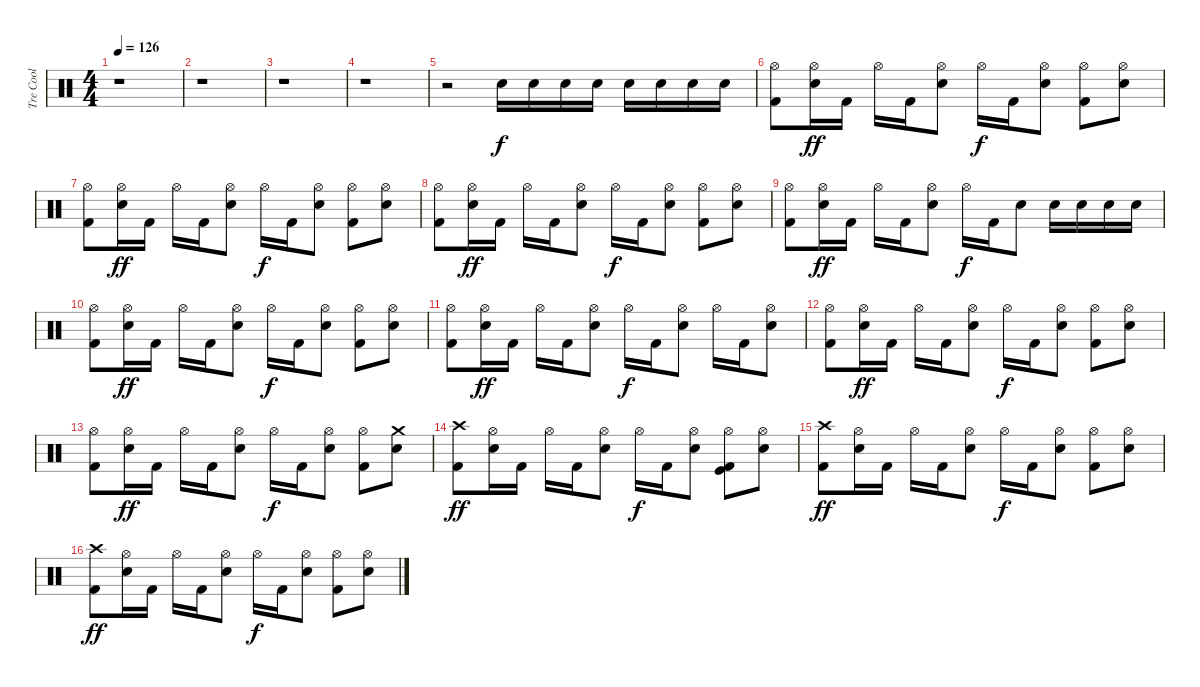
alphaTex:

\track ("Tre Cool" "Tre Cool") {instrument percussion}
\staff {score}
\articulation defaults
\ts (4 4)
\tempo 126
\clef neutral
\ks c
r.1{dy f} |
r.1 |
r.1 |
r.1 |
r.2 "Snare (hit) 2".16 "Snare (hit) 2".16 "Snare (hit) 2".16 "Snare (hit) 2".16 "Snare (hit) 2".16 "Snare (hit) 2".16 "Snare (hit) 2".16 "Snare (hit) 2".16 |
("Hi-Hat (open)" "Kick (hit) 2").8 ("Hi-Hat (open)" "Snare (hit) 2").16{dy ff} "Kick (hit) 2".16 "Hi-Hat (open)".16 "Kick (hit) 2".16 ("Hi-Hat (open)" "Snare (hit) 2").8 "Hi-Hat (open)".16{dy f} "Kick (hit) 2".16 ("Hi-Hat (open)" "Snare (hit) 2").8 ("Kick (hit) 2" "Hi-Hat (open)").8 ("Snare (hit) 2" "Hi-Hat (open)").8 |
("Hi-Hat (open)" "Kick (hit) 2").8 ("Hi-Hat (open)" "Snare (hit) 2").16{dy ff} "Kick (hit) 2".16 "Hi-Hat (open)".16 "Kick (hit) 2".16 ("Hi-Hat (open)" "Snare (hit) 2").8 "Hi-Hat (open)".16{dy f} "Kick (hit) 2".16 ("Hi-Hat (open)" "Snare (hit) 2").8 ("Kick (hit) 2" "Hi-Hat (open)").8 ("Hi-Hat (open)" "Snare (hit) 2").8 |
("Hi-Hat (open)" "Kick (hit) 2").8 ("Hi-Hat (open)" "Snare (hit) 2").16{dy ff} "Kick (hit) 2".16 "Hi-Hat (open)".16 "Kick (hit) 2".16 ("Hi-Hat (open)" "Snare (hit) 2").8 "Hi-Hat (open)".16{dy f} "Kick (hit) 2".16 ("Hi-Hat (open)" "Snare (hit) 2").8 ("Kick (hit) 2" "Hi-Hat (open)").8 ("Snare (hit) 2" "Hi-Hat (open)").8 |
("Hi-Hat (open)" "Kick (hit) 2").8 ("Hi-Hat (open)" "Snare (hit) 2").16{dy ff} "Kick (hit) 2".16 "Hi-Hat (open)".16 "Kick (hit) 2".16 ("Hi-Hat (open)" "Snare (hit) 2").8 "Hi-Hat (open)".16{dy f} "Kick (hit) 2".16 "Snare (hit) 2".8 "Snare (hit) 2".16 "Snare (hit) 2".16 "Snare (hit) 2".16 "Snare (hit) 2".16 |
("Hi-Hat (open)" "Kick (hit) 2").8 ("Hi-Hat (open)" "Snare (hit) 2").16{dy ff} "Kick (hit) 2".16 "Hi-Hat (open)".16 "Kick (hit) 2".16 ("Hi-Hat (open)" "Snare (hit) 2").8 "Hi-Hat (open)".16{dy f} "Kick (hit) 2".16 ("Hi-Hat (open)" "Snare (hit) 2").8 ("Kick (hit) 2" "Hi-Hat (open)").8 ("Snare (hit) 2" "Hi-Hat (open)").8 |
("Hi-Hat (open)" "Kick (hit) 2").8 ("Hi-Hat (open)" "Snare (hit) 2").16{dy ff} "Kick (hit) 2".16 "Hi-Hat (open)".16 "Kick (hit) 2".16 ("Hi-Hat (open)" "Snare (hit) 2").8 "Hi-Hat (open)".16{dy f} "Kick (hit) 2".16 ("Hi-Hat (open)" "Snare (hit) 2").8 "Hi-Hat (open)".16 "Kick (hit) 2".16 ("Hi-Hat (open)" "Snare (hit) 2").8 |
("Hi-Hat (open)" "Kick (hit) 2").8 ("Hi-Hat (open)" "Snare (hit) 2").16{dy ff} "Kick (hit) 2".16 "Hi-Hat (open)".16 "Kick (hit) 2".16 ("Hi-Hat (open)" "Snare (hit) 2").8 "Hi-Hat (open)".16{dy f} "Kick (hit) 2".16 ("Hi-Hat (open)" "Snare (hit) 2").8 ("Kick (hit) 2" "Hi-Hat (open)").8 ("Snare (hit) 2" "Hi-Hat (open)").8 |
("Hi-Hat (open)" "Kick (hit) 2").8 ("Hi-Hat (open)" "Snare (hit) 2").16{dy ff} "Kick (hit) 2".16 "Hi-Hat (open)".16 "Kick (hit) 2".16 ("Hi-Hat (open)" "Snare (hit) 2").8 "Hi-Hat (open)".16{dy f} "Kick (hit) 2".16 ("Hi-Hat (open)" "Snare (hit) 2").8 ("Kick (hit) 2" "Hi-Hat (open)").8 ("Crash medium (hit)" "Snare (hit) 2").8 |
("Crash high (hit)" "Kick (hit) 2").8{dy ff} ("Hi-Hat (open)" "Snare (hit) 2").16 "Kick (hit) 2".16 "Hi-Hat (open)".16 "Kick (hit) 2".16 ("Hi-Hat (open)" "Snare (hit) 2").8 "Hi-Hat (open)".16{dy f} "Kick (hit) 2".16 ("Hi-Hat (open)" "Snare (hit) 2").8 ("Kick (hit)" "Kick (hit) 2" "Hi-Hat (open)").8 ("Snare (hit) 2" "Hi-Hat (open)").8 |
("Crash high (hit)" "Kick (hit) 2").8{dy ff} ("Hi-Hat (open)" "Snare (hit) 2").16 "Kick (hit) 2".16 "Hi-Hat (open)".16 "Kick (hit) 2".16 ("Hi-Hat (open)" "Snare (hit) 2").8 "Hi-Hat (open)".16{dy f} "Kick (hit) 2".16 ("Hi-Hat (open)" "Snare (hit) 2").8 ("Hi-Hat (open)" "Kick (hit) 2").8 ("Hi-Hat (open)" "Snare (hit) 2").8 |
("Crash high (hit)" "Kick (hit) 2").8{dy ff} ("Hi-Hat (open)" "Snare (hit) 2").16 "Kick (hit) 2".16 "Hi-Hat (open)".16 "Kick (hit) 2".16 ("Hi-Hat (open)" "Snare (hit) 2").8 "Hi-Hat (open)".16{dy f} "Kick (hit) 2".16 ("Hi-Hat (open)" "Snare (hit) 2").8 ("Hi-Hat (open)" "Kick (hit) 2").8 ("Hi-Hat (open)" "Snare (hit) 2").8
